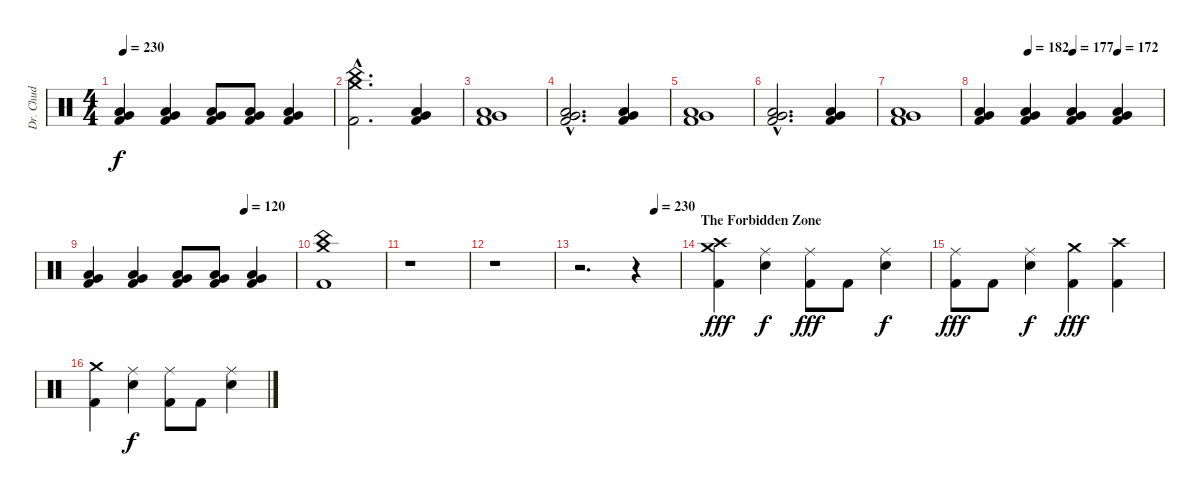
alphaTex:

\track ("Dr. Chud" "Dr. Chud") {instrument percussion}
\staff {score}
\articulation defaults
\ts (4 4)
\tempo 230
\clef neutral
\ks c
("Low Tom (hit)" "Very Low Tom (hit)" "Kick (hit) 2").4{dy f} ("Low Tom (hit)" "Very Low Tom (hit)" "Kick (hit) 2").4 ("Low Tom (hit)" "Very Low Tom (hit)" "Kick (hit) 2").8 ("Low Tom (hit)" "Very Low Tom (hit)" "Kick (hit) 2").8 ("Low Tom (hit)" "Very Low Tom (hit)" "Kick (hit) 2").4 |
("China (hit)"{hac} "Crash medium (hit)"{hac} "Kick (hit) 2"{hac}).2{d} ("Low Tom (hit)" "Very Low Tom (hit)" "Kick (hit) 2").4 |
("Low Tom (hit)" "Very Low Tom (hit)" "Kick (hit) 2").1 |
("Low Tom (hit)"{hac} "Very Low Tom (hit)"{hac} "Kick (hit) 2"{hac}).2{d} ("Low Tom (hit)" "Very Low Tom (hit)" "Kick (hit) 2").4 |
("Low Tom (hit)" "Very Low Tom (hit)" "Kick (hit) 2").1 |
("Low Tom (hit)"{hac} "Very Low Tom (hit)"{hac} "Kick (hit) 2"{hac}).2{d} ("Low Tom (hit)" "Very Low Tom (hit)" "Kick (hit) 2").4 |
("Low Tom (hit)" "Very Low Tom (hit)" "Kick (hit) 2").1 |
\tempo (182 0.25)
\tempo (177 0.5)
\tempo (172 0.75)
("Low Tom (hit)" "Very Low Tom (hit)" "Kick (hit) 2").4 ("Low Tom (hit)" "Very Low Tom (hit)" "Kick (hit) 2").4 ("Low Tom (hit)" "Very Low Tom (hit)" "Kick (hit) 2").4 ("Low Tom (hit)" "Very Low Tom (hit)" "Kick (hit) 2").4 |
\tempo (120 0.75)
("Low Tom (hit)" "Very Low Tom (hit)" "Kick (hit) 2").4 ("Low Tom (hit)" "Very Low Tom (hit)" "Kick (hit) 2").4 ("Low Tom (hit)" "Very Low Tom (hit)" "Kick (hit) 2").8 ("Low Tom (hit)" "Very Low Tom (hit)" "Kick (hit) 2").8 ("Low Tom (hit)" "Very Low Tom (hit)" "Kick (hit) 2").4 |
("China (hit)" "Crash medium (hit)" "Kick (hit) 2").1 |
r.1 |
r.1 |
\tempo (230 0.75)
r.2{d} r.4 |
\section ("" "The Forbidden Zone")
("Crash high (hit)" "Crash medium (hit)" "Kick (hit) 2").4{dy fff} ("Ride (middle)" "Snare (hit) 2").4{dy f} ("Ride (middle)" "Kick (hit) 2").8{dy fff} "Kick (hit) 2".8 ("Ride (middle)" "Snare (hit) 2").4{dy f} |
("Ride (middle)" "Kick (hit) 2").8{dy fff} "Kick (hit) 2".8 ("Ride (middle)" "Snare (hit) 2").4{dy f} ("Crash medium (hit)" "Kick (hit) 2").4{dy fff} ("Crash high (hit)" "Kick (hit) 2").4 |
("Crash medium (hit)" "Kick (hit) 2").4 ("Ride (middle)" "Snare (hit) 2").4{dy f} ("Ride (middle)" "Kick (hit) 2").8 "Kick (hit) 2".8 ("Ride (middle)" "Snare (hit) 2").4
